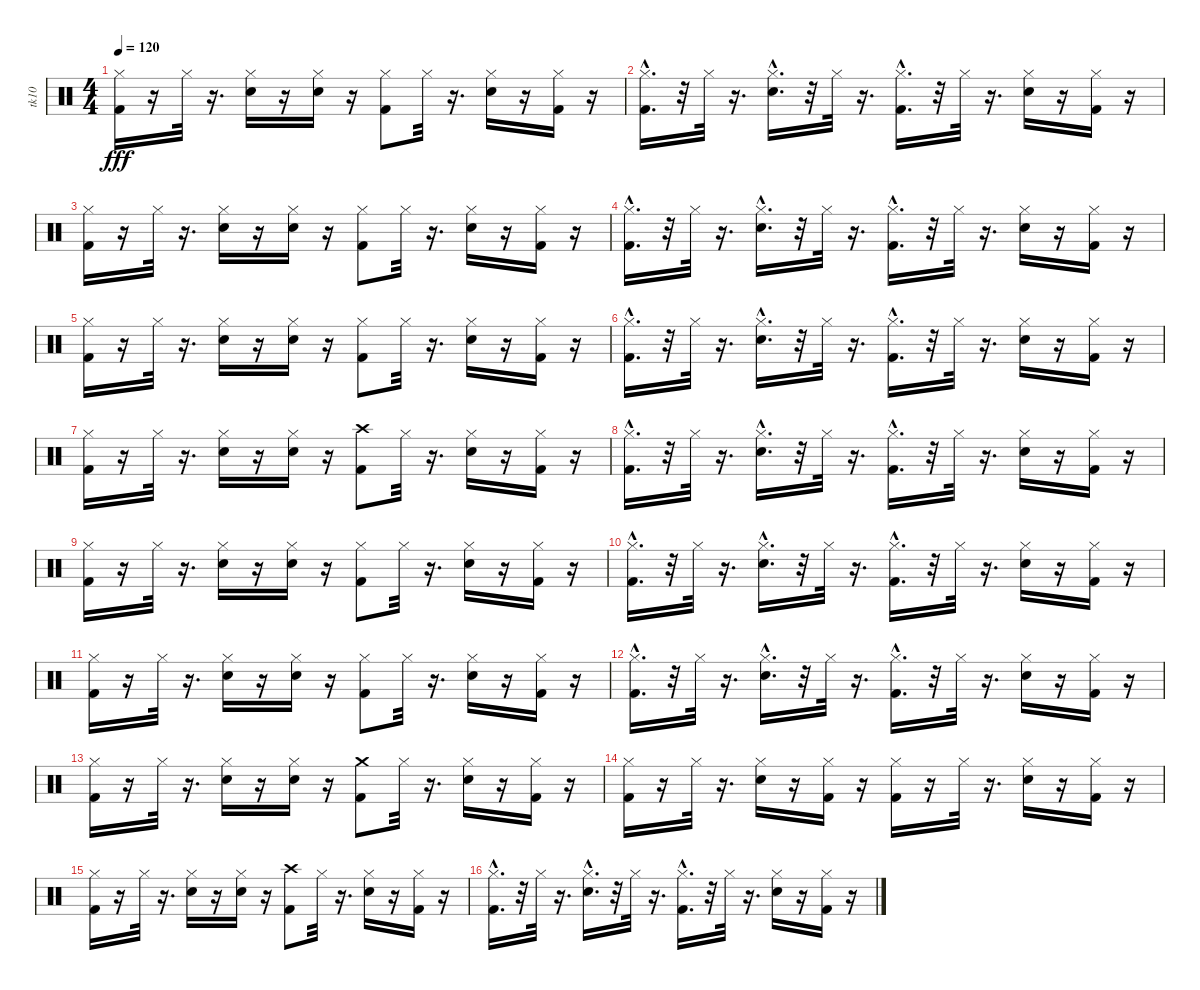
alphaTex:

\track ("tk10" "tk10") {instrument percussion}
\staff {score}
\articulation defaults
\ts (4 4)
\tempo 120
\clef neutral
\ks c
("Hi-Hat (closed)" "Kick (hit) 2").16{dy fff} r.16 "Hi-Hat (closed)".32 r.16{d} ("Hi-Hat (closed)" "Snare (hit) 2").16 r.16 ("Hi-Hat (closed)" "Snare (hit) 2").16 r.16 ("Hi-Hat (closed)" "Kick (hit) 2").8 "Hi-Hat (closed)".32 r.16{d} ("Snare (hit) 2" "Hi-Hat (closed)").16 r.16 ("Hi-Hat (closed)" "Kick (hit) 2").16 r.16 |
("Hi-Hat (closed)" "Kick (hit) 2"{hac}).16{d} r.32 "Hi-Hat (closed)".32 r.16{d} ("Snare (hit) 2"{hac} "Hi-Hat (closed)").16{d} r.32 "Hi-Hat (closed)".32 r.16{d} ("Kick (hit) 2"{hac} "Hi-Hat (closed)").16{d} r.32 "Hi-Hat (closed)".32 r.16{d} ("Hi-Hat (closed)" "Snare (hit) 2").16 r.16 ("Kick (hit) 2" "Hi-Hat (closed)").16 r.16 |
("Kick (hit) 2" "Hi-Hat (closed)").16 r.16 "Hi-Hat (closed)".32 r.16{d} ("Snare (hit) 2" "Hi-Hat (closed)").16 r.16 ("Snare (hit) 2" "Hi-Hat (closed)").16 r.16 ("Hi-Hat (closed)" "Kick (hit) 2").8 "Hi-Hat (closed)".32 r.16{d} ("Hi-Hat (closed)" "Snare (hit) 2").16 r.16 ("Kick (hit) 2" "Hi-Hat (closed)").16 r.16 |
("Hi-Hat (closed)" "Kick (hit) 2"{hac}).16{d} r.32 "Hi-Hat (closed)".32 r.16{d} ("Hi-Hat (closed)" "Snare (hit) 2"{hac}).16{d} r.32 "Hi-Hat (closed)".32 r.16{d} ("Hi-Hat (closed)" "Kick (hit) 2"{hac}).16{d} r.32 "Hi-Hat (closed)".32 r.16{d} ("Snare (hit) 2" "Hi-Hat (closed)").16 r.16 ("Hi-Hat (closed)" "Kick (hit) 2").16 r.16 |
("Hi-Hat (closed)" "Kick (hit) 2").16 r.16 "Hi-Hat (closed)".32 r.16{d} ("Snare (hit) 2" "Hi-Hat (closed)").16 r.16 ("Hi-Hat (closed)" "Snare (hit) 2").16 r.16 ("Kick (hit) 2" "Hi-Hat (closed)").8 "Hi-Hat (closed)".32 r.16{d} ("Snare (hit) 2" "Hi-Hat (closed)").16 r.16 ("Kick (hit) 2" "Hi-Hat (closed)").16 r.16 |
("Hi-Hat (closed)" "Kick (hit) 2"{hac}).16{d} r.32 "Hi-Hat (closed)".32 r.16{d} ("Snare (hit) 2"{hac} "Hi-Hat (closed)").16{d} r.32 "Hi-Hat (closed)".32 r.16{d} ("Hi-Hat (closed)" "Kick (hit) 2"{hac}).16{d} r.32 "Hi-Hat (closed)".32 r.16{d} ("Snare (hit) 2" "Hi-Hat (closed)").16 r.16 ("Kick (hit) 2" "Hi-Hat (closed)").16 r.16 |
("Hi-Hat (closed)" "Kick (hit) 2").16 r.16 "Hi-Hat (closed)".32 r.16{d} ("Hi-Hat (closed)" "Snare (hit) 2").16 r.16 ("Hi-Hat (closed)" "Snare (hit) 2").16 r.16 ("Kick (hit) 2" "Crash high (hit)").8 "Hi-Hat (closed)".32 r.16{d} ("Snare (hit) 2" "Hi-Hat (closed)").16 r.16 ("Kick (hit) 2" "Hi-Hat (closed)").16 r.16 |
("Hi-Hat (closed)" "Kick (hit) 2"{hac}).16{d} r.32 "Hi-Hat (closed)".32 r.16{d} ("Hi-Hat (closed)" "Snare (hit) 2"{hac}).16{d} r.32 "Hi-Hat (closed)".32 r.16{d} ("Hi-Hat (closed)" "Kick (hit) 2"{hac}).16{d} r.32 "Hi-Hat (closed)".32 r.16{d} ("Hi-Hat (closed)" "Snare (hit) 2").16 r.16 ("Kick (hit) 2" "Hi-Hat (closed)").16 r.16 |
("Hi-Hat (closed)" "Kick (hit) 2").16 r.16 "Hi-Hat (closed)".32 r.16{d} ("Snare (hit) 2" "Hi-Hat (closed)").16 r.16 ("Hi-Hat (closed)" "Snare (hit) 2").16 r.16 ("Hi-Hat (closed)" "Kick (hit) 2").8 "Hi-Hat (closed)".32 r.16{d} ("Hi-Hat (closed)" "Snare (hit) 2").16 r.16 ("Kick (hit) 2" "Hi-Hat (closed)").16 r.16 |
("Kick (hit) 2"{hac} "Hi-Hat (closed)").16{d} r.32 "Hi-Hat (closed)".32 r.16{d} ("Snare (hit) 2"{hac} "Hi-Hat (closed)").16{d} r.32 "Hi-Hat (closed)".32 r.16{d} ("Hi-Hat (closed)" "Kick (hit) 2"{hac}).16{d} r.32 "Hi-Hat (closed)".32 r.16{d} ("Hi-Hat (closed)" "Snare (hit) 2").16 r.16 ("Hi-Hat (closed)" "Kick (hit) 2").16 r.16 |
("Kick (hit) 2" "Hi-Hat (closed)").16 r.16 "Hi-Hat (closed)".32 r.16{d} ("Hi-Hat (closed)" "Snare (hit) 2").16 r.16 ("Hi-Hat (closed)" "Snare (hit) 2").16 r.16 ("Hi-Hat (closed)" "Kick (hit) 2").8 "Hi-Hat (closed)".32 r.16{d} ("Snare (hit) 2" "Hi-Hat (closed)").16 r.16 ("Hi-Hat (closed)" "Kick (hit) 2").16 r.16 |
("Hi-Hat (closed)" "Kick (hit) 2"{hac}).16{d} r.32 "Hi-Hat (closed)".32 r.16{d} ("Snare (hit) 2"{hac} "Hi-Hat (closed)").16{d} r.32 "Hi-Hat (closed)".32 r.16{d} ("Kick (hit) 2"{hac} "Hi-Hat (closed)").16{d} r.32 "Hi-Hat (closed)".32 r.16{d} ("Hi-Hat (closed)" "Snare (hit) 2").16 r.16 ("Hi-Hat (closed)" "Kick (hit) 2").16 r.16 |
("Hi-Hat (closed)" "Kick (hit) 2").16 r.16 "Hi-Hat (closed)".32 r.16{d} ("Hi-Hat (closed)" "Snare (hit) 2").16 r.16 ("Hi-Hat (closed)" "Snare (hit) 2").16 r.16 ("Kick (hit) 2" "Crash medium (hit)").8 "Hi-Hat (closed)".32 r.16{d} ("Hi-Hat (closed)" "Snare (hit) 2").16 r.16 ("Hi-Hat (closed)" "Kick (hit) 2").16 r.16 |
("Kick (hit) 2" "Hi-Hat (closed)").16 r.16 "Hi-Hat (closed)".32 r.16{d} ("Snare (hit) 2" "Hi-Hat (closed)").16 r.16 ("Kick (hit) 2" "Hi-Hat (closed)").16 r.16 ("Kick (hit) 2" "Hi-Hat (closed)").16 r.16 "Hi-Hat (closed)".32 r.16{d} ("Hi-Hat (closed)" "Snare (hit) 2").16 r.16 ("Hi-Hat (closed)" "Kick (hit) 2").16 r.16 |
("Hi-Hat (closed)" "Kick (hit) 2").16 r.16 "Hi-Hat (closed)".32 r.16{d} ("Hi-Hat (closed)" "Snare (hit) 2").16 r.16 ("Snare (hit) 2" "Hi-Hat (closed)").16 r.16 ("Crash high (hit)" "Kick (hit) 2").8 "Hi-Hat (closed)".32 r.16{d} ("Snare (hit) 2" "Hi-Hat (closed)").16 r.16 ("Kick (hit) 2" "Hi-Hat (closed)").16 r.16 |
("Kick (hit) 2"{hac} "Hi-Hat (closed)").16{d} r.32 "Hi-Hat (closed)".32 r.16{d} ("Hi-Hat (closed)" "Snare (hit) 2"{hac}).16{d} r.32 "Hi-Hat (closed)".32 r.16{d} ("Kick (hit) 2"{hac} "Hi-Hat (closed)").16{d} r.32 "Hi-Hat (closed)".32 r.16{d} ("Snare (hit) 2" "Hi-Hat (closed)").16 r.16 ("Hi-Hat (closed)" "Kick (hit) 2").16 r.16
